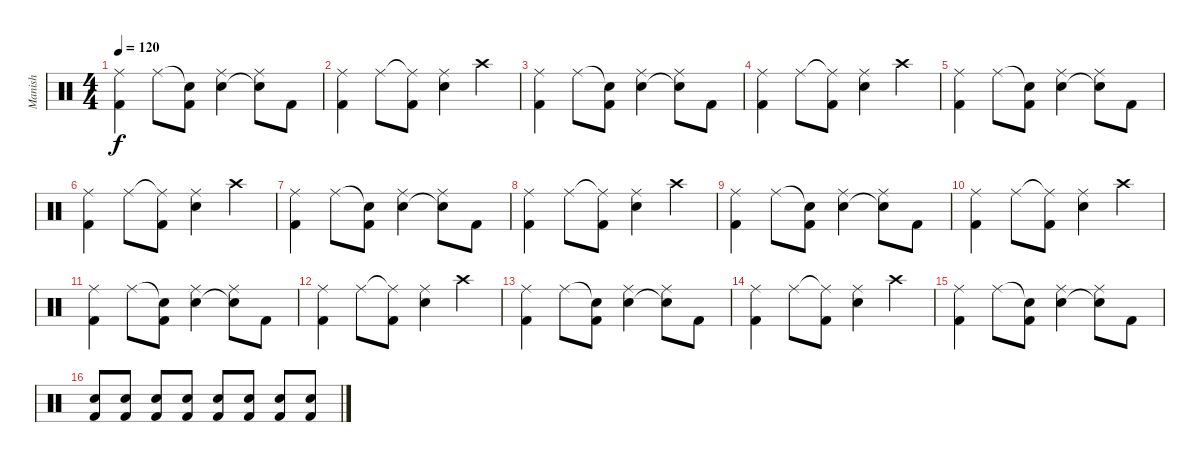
\track ("Manish" "Manish") {instrument percussion}
\staff {score}
\articulation defaults
\ts (4 4)
\tempo 120
\clef neutral
\ks c
("Ride (middle)" "Kick (hit) 2").4{dy f} "Ride (middle)".8 ("Snare (hit)"{t} "Kick (hit) 2").8 ("Ride (middle)" "Snare (hit) 2").4 ("Ride (middle)" "Snare (hit)"{t}).8 "Kick (hit) 2".8 |
("Ride (middle)" "Kick (hit) 2").4 "Ride (middle)".8 ("Ride (middle)"{t} "Kick (hit) 2").8 ("Ride (middle)" "Snare (hit) 2").4 "Crash high (hit)".4 |
("Ride (middle)" "Kick (hit) 2").4 "Ride (middle)".8 ("Snare (hit)"{t} "Kick (hit) 2").8 ("Ride (middle)" "Snare (hit) 2").4 ("Ride (middle)" "Snare (hit)"{t}).8 "Kick (hit) 2".8 |
("Ride (middle)" "Kick (hit) 2").4 "Ride (middle)".8 ("Ride (middle)"{t} "Kick (hit) 2").8 ("Ride (middle)" "Snare (hit) 2").4 "Crash high (hit)".4 |
("Ride (middle)" "Kick (hit) 2").4 "Ride (middle)".8 ("Snare (hit)"{t} "Kick (hit) 2").8 ("Ride (middle)" "Snare (hit) 2").4 ("Ride (middle)" "Snare (hit)"{t}).8 "Kick (hit) 2".8 |
("Ride (middle)" "Kick (hit) 2").4 "Ride (middle)".8 ("Ride (middle)"{t} "Kick (hit) 2").8 ("Ride (middle)" "Snare (hit) 2").4 "Crash high (hit)".4 |
("Ride (middle)" "Kick (hit) 2").4 "Ride (middle)".8 ("Snare (hit)"{t} "Kick (hit) 2").8 ("Ride (middle)" "Snare (hit) 2").4 ("Ride (middle)" "Snare (hit)"{t}).8 "Kick (hit) 2".8 |
("Ride (middle)" "Kick (hit) 2").4 "Ride (middle)".8 ("Ride (middle)"{t} "Kick (hit) 2").8 ("Ride (middle)" "Snare (hit) 2").4 "Crash high (hit)".4 |
("Ride (middle)" "Kick (hit) 2").4 "Ride (middle)".8 ("Snare (hit)"{t} "Kick (hit) 2").8 ("Ride (middle)" "Snare (hit) 2").4 ("Ride (middle)" "Snare (hit)"{t}).8 "Kick (hit) 2".8 |
("Ride (middle)" "Kick (hit) 2").4 "Ride (middle)".8 ("Ride (middle)"{t} "Kick (hit) 2").8 ("Ride (middle)" "Snare (hit) 2").4 "Crash high (hit)".4 |
("Ride (middle)" "Kick (hit) 2").4 "Ride (middle)".8 ("Snare (hit)"{t} "Kick (hit) 2").8 ("Ride (middle)" "Snare (hit) 2").4 ("Ride (middle)" "Snare (hit)"{t}).8 "Kick (hit) 2".8 |
("Ride (middle)" "Kick (hit) 2").4 "Ride (middle)".8 ("Ride (middle)"{t} "Kick (hit) 2").8 ("Ride (middle)" "Snare (hit) 2").4 "Crash high (hit)".4 |
("Ride (middle)" "Kick (hit) 2").4 "Ride (middle)".8 ("Snare (hit)"{t} "Kick (hit) 2").8 ("Ride (middle)" "Snare (hit) 2").4 ("Ride (middle)" "Snare (hit)"{t}).8 "Kick (hit) 2".8 |
("Ride (middle)" "Kick (hit) 2").4 "Ride (middle)".8 ("Ride (middle)"{t} "Kick (hit) 2").8 ("Ride (middle)" "Snare (hit) 2").4 "Crash high (hit)".4 |
("Ride (middle)" "Kick (hit) 2").4 "Ride (middle)".8 ("Snare (hit)"{t} "Kick (hit) 2").8 ("Ride (middle)" "Snare (hit) 2").4 ("Ride (middle)" "Snare (hit)"{t}).8 "Kick (hit) 2".8 |
("Snare (hit) 2" "Kick (hit) 2").8 ("Snare (hit) 2" "Kick (hit) 2").8 ("Snare (hit) 2" "Kick (hit) 2").8 ("Snare (hit) 2" "Kick (hit) 2").8 ("Snare (hit) 2" "Kick (hit) 2").8 ("Snare (hit) 2" "Kick (hit) 2").8 ("Snare (hit) 2" "Kick (hit) 2").8 ("Snare (hit) 2" "Kick (hit) 2").8
